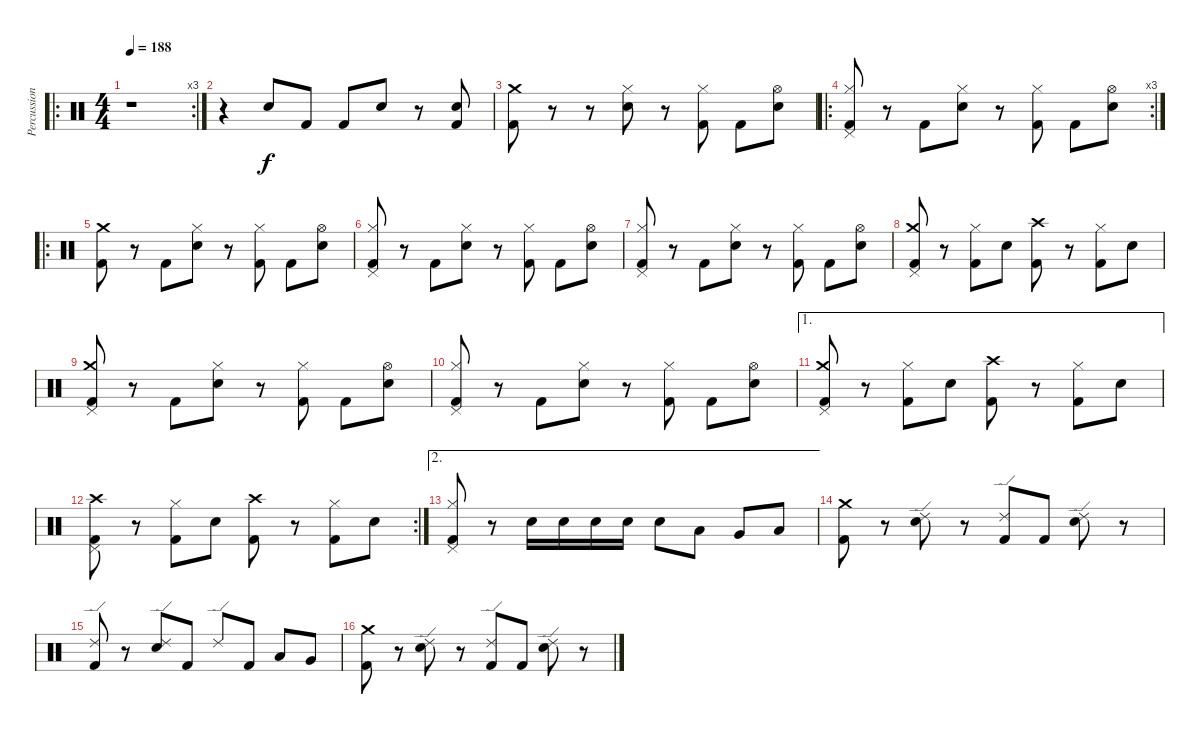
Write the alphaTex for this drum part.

\track ("Percussion" "Percussion") {instrument percussion}
\staff {score}
\articulation defaults
\ro
\rc 3
\ts (4 4)
\tempo 188
\clef neutral
\ks c
r.1{dy f} |
r.4 "Snare (hit) 2".8 "Kick (hit) 2".8 "Kick (hit) 2".8 "Snare (hit) 2".8 r.8 ("Snare (hit) 2" "Kick (hit) 2").8 |
("Crash medium (hit)" "Kick (hit) 2").8 r.8 r.8 ("Hi-Hat (closed)" "Snare (hit) 2").8 r.8 ("Hi-Hat (closed)" "Kick (hit) 2").8 "Kick (hit) 2".8 ("Hi-Hat (open)" "Snare (hit) 2").8 |
\ro
\rc 3
("Pedal Hi-Hat (hit)" "Hi-Hat (closed)" "Kick (hit) 2").8 r.8 "Kick (hit) 2".8 ("Hi-Hat (closed)" "Snare (hit) 2").8 r.8 ("Hi-Hat (closed)" "Kick (hit) 2").8 "Kick (hit) 2".8 ("Hi-Hat (open)" "Snare (hit) 2").8 |
\ro
("Crash medium (hit)" "Kick (hit) 2").8 r.8 "Kick (hit) 2".8 ("Hi-Hat (closed)" "Snare (hit) 2").8 r.8 ("Hi-Hat (closed)" "Kick (hit) 2").8 "Kick (hit) 2".8 ("Hi-Hat (open)" "Snare (hit) 2").8 |
("Hi-Hat (closed)" "Pedal Hi-Hat (hit)" "Kick (hit) 2").8 r.8 "Kick (hit) 2".8 ("Hi-Hat (closed)" "Snare (hit) 2").8 r.8 ("Hi-Hat (closed)" "Kick (hit) 2").8 "Kick (hit) 2".8 ("Hi-Hat (open)" "Snare (hit) 2").8 |
("Hi-Hat (closed)" "Pedal Hi-Hat (hit)" "Kick (hit) 2").8 r.8 "Kick (hit) 2".8 ("Hi-Hat (closed)" "Snare (hit) 2").8 r.8 ("Hi-Hat (closed)" "Kick (hit) 2").8 "Kick (hit) 2".8 ("Hi-Hat (open)" "Snare (hit) 2").8 |
("Crash medium (hit)" "Pedal Hi-Hat (hit)" "Kick (hit) 2").8 r.8 ("Hi-Hat (closed)" "Kick (hit) 2").8 "Snare (hit) 2".8 ("Crash high (hit)" "Kick (hit) 2").8 r.8 ("Hi-Hat (closed)" "Kick (hit) 2").8 "Snare (hit) 2".8 |
("Crash medium (hit)" "Pedal Hi-Hat (hit)" "Kick (hit) 2").8 r.8 "Kick (hit) 2".8 ("Hi-Hat (closed)" "Snare (hit) 2").8 r.8 ("Hi-Hat (closed)" "Kick (hit) 2").8 "Kick (hit) 2".8 ("Hi-Hat (open)" "Snare (hit) 2").8 |
("Hi-Hat (closed)" "Pedal Hi-Hat (hit)" "Kick (hit) 2").8 r.8 "Kick (hit) 2".8 ("Hi-Hat (closed)" "Snare (hit) 2").8 r.8 ("Hi-Hat (closed)" "Kick (hit) 2").8 "Kick (hit) 2".8 ("Hi-Hat (open)" "Snare (hit) 2").8 |
\ae 1
("Crash medium (hit)" "Pedal Hi-Hat (hit)" "Kick (hit) 2").8 r.8 ("Hi-Hat (closed)" "Kick (hit) 2").8 "Snare (hit) 2".8 ("Crash high (hit)" "Kick (hit) 2").8 r.8 ("Hi-Hat (closed)" "Kick (hit) 2").8 "Snare (hit) 2".8 |
\rc 2
("Crash high (hit)" "Pedal Hi-Hat (hit)" "Kick (hit) 2").8 r.8 ("Hi-Hat (closed)" "Kick (hit) 2").8 "Snare (hit) 2".8 ("Crash high (hit)" "Kick (hit) 2").8 r.8 ("Hi-Hat (closed)" "Kick (hit) 2").8 "Snare (hit) 2".8 |
\ae 2
("Hi-Hat (closed)" "Pedal Hi-Hat (hit)" "Kick (hit) 2").8 r.8 "Snare (hit) 2".16 "Snare (hit) 2".16 "Snare (hit) 2".16 "Snare (hit) 2".16 "Snare (hit) 2".8 "Low Tom (hit)".8 "Very Low Tom (hit)".8 "Low Floor Tom (hit)".8 |
("Crash medium (hit)" "Kick (hit) 2").8 r.8 ("Ride (edge) 2" "Snare (hit) 2").8 r.8 ("Ride (edge) 2" "Kick (hit) 2").8 "Kick (hit) 2".8 ("Ride (edge) 2" "Snare (hit) 2").8 r.8 |
("Ride (edge) 2" "Kick (hit) 2").8 r.8 ("Ride (edge) 2" "Snare (hit) 2").8 "Kick (hit) 2".8 "Ride (edge) 2".8 "Kick (hit) 2".8 "Low Tom (hit)".8 "Very Low Tom (hit)".8 |
("Crash medium (hit)" "Kick (hit) 2").8 r.8 ("Ride (edge) 2" "Snare (hit) 2").8 r.8 ("Ride (edge) 2" "Kick (hit) 2").8 "Kick (hit) 2".8 ("Ride (edge) 2" "Snare (hit) 2").8 r.8
